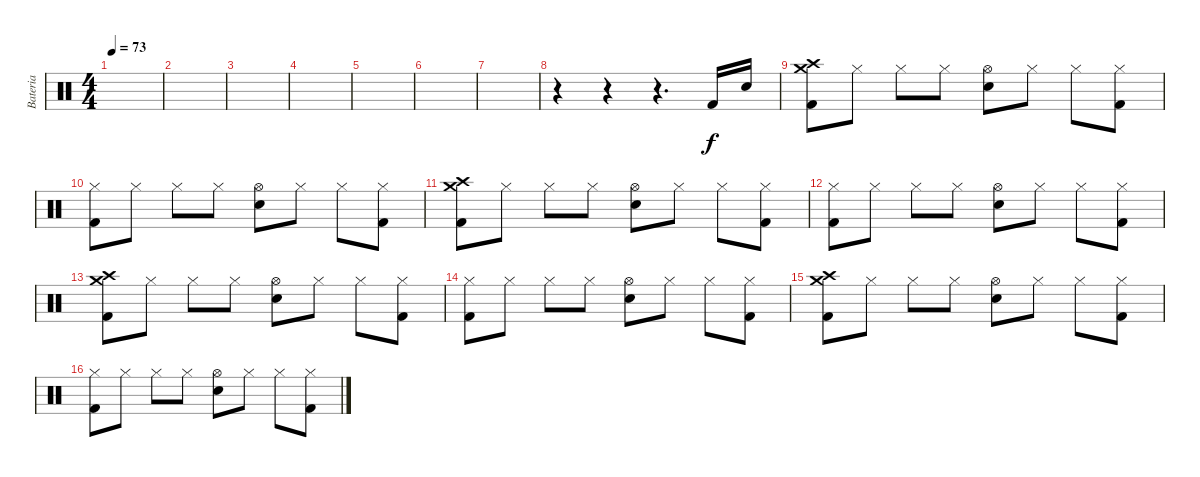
\track ("Bateria" "Bateria") {instrument percussion}
\staff {score}
\articulation defaults
\ts (4 4)
\tempo 73
\clef neutral
\ks c
|
|
|
|
|
|
|
r.4 r.4 r.4{d} "Kick (hit) 2".16 "Snare (hit) 2".16 |
("Crash high (hit)" "Crash medium (hit)" "Kick (hit) 2").8 "Hi-Hat (closed)".8 "Hi-Hat (closed)".8 "Hi-Hat (closed)".8 ("Hi-Hat (open)" "Snare (hit) 2").8 "Hi-Hat (closed)".8 "Hi-Hat (closed)".8 ("Hi-Hat (closed)" "Kick (hit) 2").8 |
("Hi-Hat (closed)" "Kick (hit) 2").8 "Hi-Hat (closed)".8 "Hi-Hat (closed)".8 "Hi-Hat (closed)".8 ("Hi-Hat (open)" "Snare (hit) 2").8 "Hi-Hat (closed)".8 "Hi-Hat (closed)".8 ("Hi-Hat (closed)" "Kick (hit) 2").8 |
("Crash high (hit)" "Crash medium (hit)" "Kick (hit) 2").8 "Hi-Hat (closed)".8 "Hi-Hat (closed)".8 "Hi-Hat (closed)".8 ("Hi-Hat (open)" "Snare (hit) 2").8 "Hi-Hat (closed)".8 "Hi-Hat (closed)".8 ("Hi-Hat (closed)" "Kick (hit) 2").8 |
("Hi-Hat (closed)" "Kick (hit) 2").8 "Hi-Hat (closed)".8 "Hi-Hat (closed)".8 "Hi-Hat (closed)".8 ("Hi-Hat (open)" "Snare (hit) 2").8 "Hi-Hat (closed)".8 "Hi-Hat (closed)".8 ("Hi-Hat (closed)" "Kick (hit) 2").8 |
("Crash high (hit)" "Crash medium (hit)" "Kick (hit) 2").8 "Hi-Hat (closed)".8 "Hi-Hat (closed)".8 "Hi-Hat (closed)".8 ("Hi-Hat (open)" "Snare (hit) 2").8 "Hi-Hat (closed)".8 "Hi-Hat (closed)".8 ("Hi-Hat (closed)" "Kick (hit) 2").8 |
("Hi-Hat (closed)" "Kick (hit) 2").8 "Hi-Hat (closed)".8 "Hi-Hat (closed)".8 "Hi-Hat (closed)".8 ("Hi-Hat (open)" "Snare (hit) 2").8 "Hi-Hat (closed)".8 "Hi-Hat (closed)".8 ("Hi-Hat (closed)" "Kick (hit) 2").8 |
("Crash high (hit)" "Crash medium (hit)" "Kick (hit) 2").8 "Hi-Hat (closed)".8 "Hi-Hat (closed)".8 "Hi-Hat (closed)".8 ("Hi-Hat (open)" "Snare (hit) 2").8 "Hi-Hat (closed)".8 "Hi-Hat (closed)".8 ("Hi-Hat (closed)" "Kick (hit) 2").8 |
("Hi-Hat (closed)" "Kick (hit) 2").8 "Hi-Hat (closed)".8 "Hi-Hat (closed)".8 "Hi-Hat (closed)".8 ("Hi-Hat (open)" "Snare (hit) 2").8 "Hi-Hat (closed)".8 "Hi-Hat (closed)".8 ("Hi-Hat (closed)" "Kick (hit) 2").8
